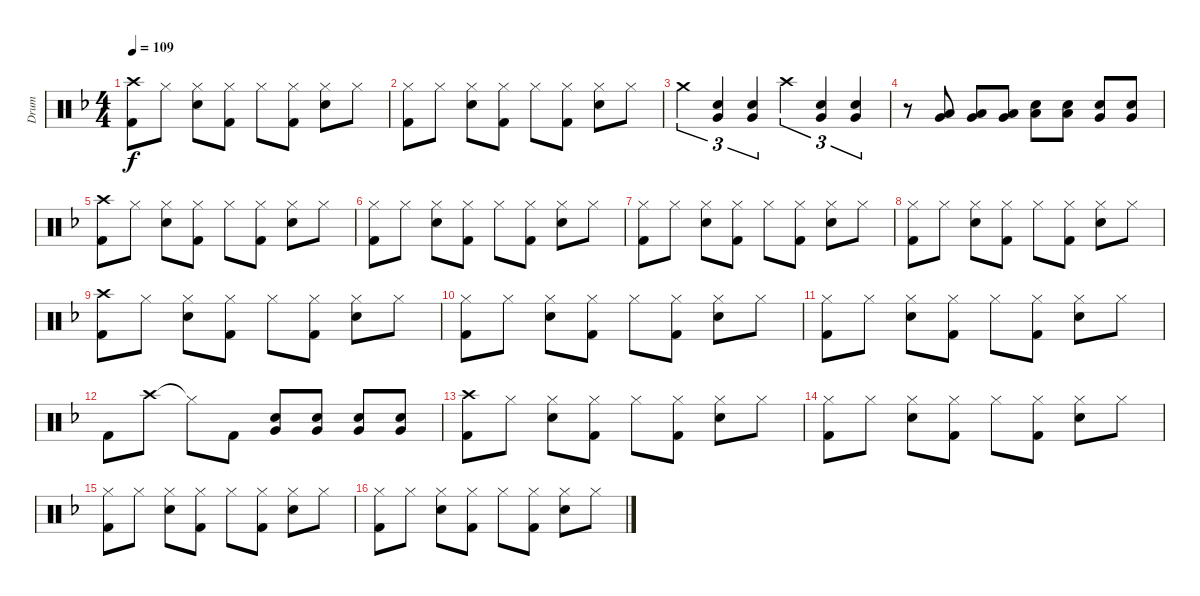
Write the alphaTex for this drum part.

\track ("Drum" "Drum") {instrument percussion}
\staff {score}
\articulation defaults
\ts (4 4)
\tempo 109
\clef neutral
\ks f
("Crash high (hit)" "Kick (hit) 2").8{dy f} "Hi-Hat (closed)".8 ("Hi-Hat (closed)" "Electric Snare (hit)").8 ("Hi-Hat (closed)" "Kick (hit) 2").8 "Hi-Hat (closed)".8 ("Hi-Hat (closed)" "Kick (hit) 2").8 ("Hi-Hat (closed)" "Electric Snare (hit)").8 "Hi-Hat (closed)".8 |
("Hi-Hat (closed)" "Kick (hit) 2").8 "Hi-Hat (closed)".8 ("Hi-Hat (closed)" "Electric Snare (hit)").8 ("Hi-Hat (closed)" "Kick (hit) 2").8 "Hi-Hat (closed)".8 ("Hi-Hat (closed)" "Kick (hit) 2").8 ("Hi-Hat (closed)" "Electric Snare (hit)").8 "Hi-Hat (closed)".8 |
"Crash medium (hit)".4{tu (3 2)} ("Electric Snare (hit)" "Very Low Tom (hit)").4{tu (3 2)} ("Electric Snare (hit)" "Very Low Tom (hit)").4{tu (3 2)} "Crash high (hit)".4{tu (3 2)} ("Very Low Tom (hit)" "Electric Snare (hit)").4{tu (3 2)} ("Very Low Tom (hit)" "Electric Snare (hit)").4{tu (3 2)} |
r.8 ("Very Low Tom (hit)" "Low Floor Tom (hit)").8 ("Very Low Tom (hit)" "Low Floor Tom (hit)").8 ("Very Low Tom (hit)" "Low Floor Tom (hit)").8 ("Electric Snare (hit)" "Low Floor Tom (hit)").8 ("Electric Snare (hit)" "Low Floor Tom (hit)").8 ("Electric Snare (hit)" "Very Low Tom (hit)").8 ("Electric Snare (hit)" "Very Low Tom (hit)").8 |
("Crash high (hit)" "Kick (hit) 2").8 "Hi-Hat (closed)".8 ("Hi-Hat (closed)" "Electric Snare (hit)").8 ("Hi-Hat (closed)" "Kick (hit) 2").8 "Hi-Hat (closed)".8 ("Hi-Hat (closed)" "Kick (hit) 2").8 ("Hi-Hat (closed)" "Electric Snare (hit)").8 "Hi-Hat (closed)".8 |
("Hi-Hat (closed)" "Kick (hit) 2").8 "Hi-Hat (closed)".8 ("Hi-Hat (closed)" "Electric Snare (hit)").8 ("Hi-Hat (closed)" "Kick (hit) 2").8 "Hi-Hat (closed)".8 ("Hi-Hat (closed)" "Kick (hit) 2").8 ("Hi-Hat (closed)" "Electric Snare (hit)").8 "Hi-Hat (closed)".8 |
("Hi-Hat (closed)" "Kick (hit) 2").8 "Hi-Hat (closed)".8 ("Hi-Hat (closed)" "Electric Snare (hit)").8 ("Hi-Hat (closed)" "Kick (hit) 2").8 "Hi-Hat (closed)".8 ("Hi-Hat (closed)" "Kick (hit) 2").8 ("Hi-Hat (closed)" "Electric Snare (hit)").8 "Hi-Hat (closed)".8 |
("Hi-Hat (closed)" "Kick (hit) 2").8 "Hi-Hat (closed)".8 ("Hi-Hat (closed)" "Electric Snare (hit)").8 ("Hi-Hat (closed)" "Kick (hit) 2").8 "Hi-Hat (closed)".8 ("Hi-Hat (closed)" "Kick (hit) 2").8 ("Hi-Hat (closed)" "Electric Snare (hit)").8 "Hi-Hat (closed)".8 |
("Crash high (hit)" "Kick (hit) 2").8 "Hi-Hat (closed)".8 ("Hi-Hat (closed)" "Electric Snare (hit)").8 ("Hi-Hat (closed)" "Kick (hit) 2").8 "Hi-Hat (closed)".8 ("Hi-Hat (closed)" "Kick (hit) 2").8 ("Hi-Hat (closed)" "Electric Snare (hit)").8 "Hi-Hat (closed)".8 |
("Hi-Hat (closed)" "Kick (hit) 2").8 "Hi-Hat (closed)".8 ("Hi-Hat (closed)" "Electric Snare (hit)").8 ("Hi-Hat (closed)" "Kick (hit) 2").8 "Hi-Hat (closed)".8 ("Hi-Hat (closed)" "Kick (hit) 2").8 ("Hi-Hat (closed)" "Electric Snare (hit)").8 "Hi-Hat (closed)".8 |
("Hi-Hat (closed)" "Kick (hit) 2").8 "Hi-Hat (closed)".8 ("Hi-Hat (closed)" "Electric Snare (hit)").8 ("Hi-Hat (closed)" "Kick (hit) 2").8 "Hi-Hat (closed)".8 ("Hi-Hat (closed)" "Kick (hit) 2").8 ("Hi-Hat (closed)" "Electric Snare (hit)").8 "Hi-Hat (closed)".8 |
"Kick (hit) 2".8 "Crash high (hit)".8 "Hi-Hat (closed)"{t}.8 "Kick (hit) 2".8 ("Very Low Tom (hit)" "Electric Snare (hit)").8 ("Very Low Tom (hit)" "Electric Snare (hit)").8 ("Very Low Tom (hit)" "Electric Snare (hit)").8 ("Very Low Tom (hit)" "Electric Snare (hit)").8 |
("Crash high (hit)" "Kick (hit) 2").8 "Hi-Hat (closed)".8 ("Hi-Hat (closed)" "Electric Snare (hit)").8 ("Hi-Hat (closed)" "Kick (hit) 2").8 "Hi-Hat (closed)".8 ("Hi-Hat (closed)" "Kick (hit) 2").8 ("Hi-Hat (closed)" "Electric Snare (hit)").8 "Hi-Hat (closed)".8 |
("Hi-Hat (closed)" "Kick (hit) 2").8 "Hi-Hat (closed)".8 ("Hi-Hat (closed)" "Electric Snare (hit)").8 ("Hi-Hat (closed)" "Kick (hit) 2").8 "Hi-Hat (closed)".8 ("Hi-Hat (closed)" "Kick (hit) 2").8 ("Hi-Hat (closed)" "Electric Snare (hit)").8 "Hi-Hat (closed)".8 |
("Hi-Hat (closed)" "Kick (hit) 2").8 "Hi-Hat (closed)".8 ("Hi-Hat (closed)" "Electric Snare (hit)").8 ("Hi-Hat (closed)" "Kick (hit) 2").8 "Hi-Hat (closed)".8 ("Hi-Hat (closed)" "Kick (hit) 2").8 ("Hi-Hat (closed)" "Electric Snare (hit)").8 "Hi-Hat (closed)".8 |
("Hi-Hat (closed)" "Kick (hit) 2").8 "Hi-Hat (closed)".8 ("Hi-Hat (closed)" "Electric Snare (hit)").8 ("Hi-Hat (closed)" "Kick (hit) 2").8 "Hi-Hat (closed)".8 ("Hi-Hat (closed)" "Kick (hit) 2").8 ("Hi-Hat (closed)" "Electric Snare (hit)").8 "Hi-Hat (closed)".8
